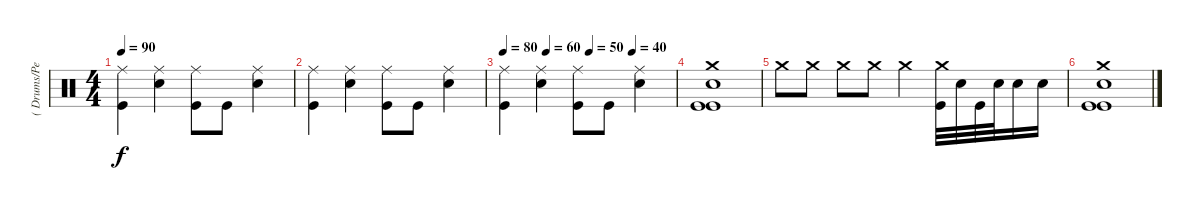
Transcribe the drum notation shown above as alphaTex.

\track ("( Drums/Percussion )" "( Drums/Pe") {instrument percussion}
\staff {score}
\articulation defaults
\ts (4 4)
\tempo 90
\clef neutral
\ks c
("Ride (middle)" "Kick (hit)").4{dy f} ("Ride (middle)" "Snare (hit) 2").4 ("Ride (middle)" "Kick (hit)").8 "Kick (hit)".8 ("Ride (middle)" "Snare (hit) 2").4 |
("Ride (middle)" "Kick (hit)").4 ("Ride (middle)" "Snare (hit) 2").4 ("Ride (middle)" "Kick (hit)").8 "Kick (hit)".8 ("Ride (middle)" "Snare (hit) 2").4 |
\tempo 80
\tempo (60 0.25)
\tempo (50 0.5)
\tempo (40 0.75)
("Ride (middle)" "Kick (hit)").4 ("Ride (middle)" "Snare (hit) 2").4 ("Ride (middle)" "Kick (hit)").8 "Kick (hit)".8 ("Ride (middle)" "Snare (hit) 2").4 |
("Crash medium (hit)" "Snare (hit) 2" "Kick (hit)" "Kick (hit)").1 |
"Crash medium (hit)".8 "Crash medium (hit)".8 "Crash medium (hit)".8 "Crash medium (hit)".8 "Crash medium (hit)".4 ("Crash medium (hit)" "Kick (hit)").32 "Snare (hit) 2".32 "Kick (hit)".32 "Snare (hit) 2".32 "Snare (hit) 2".16 "Snare (hit) 2".16 |
("Crash medium (hit)" "Snare (hit) 2" "Kick (hit)" "Kick (hit)").1
